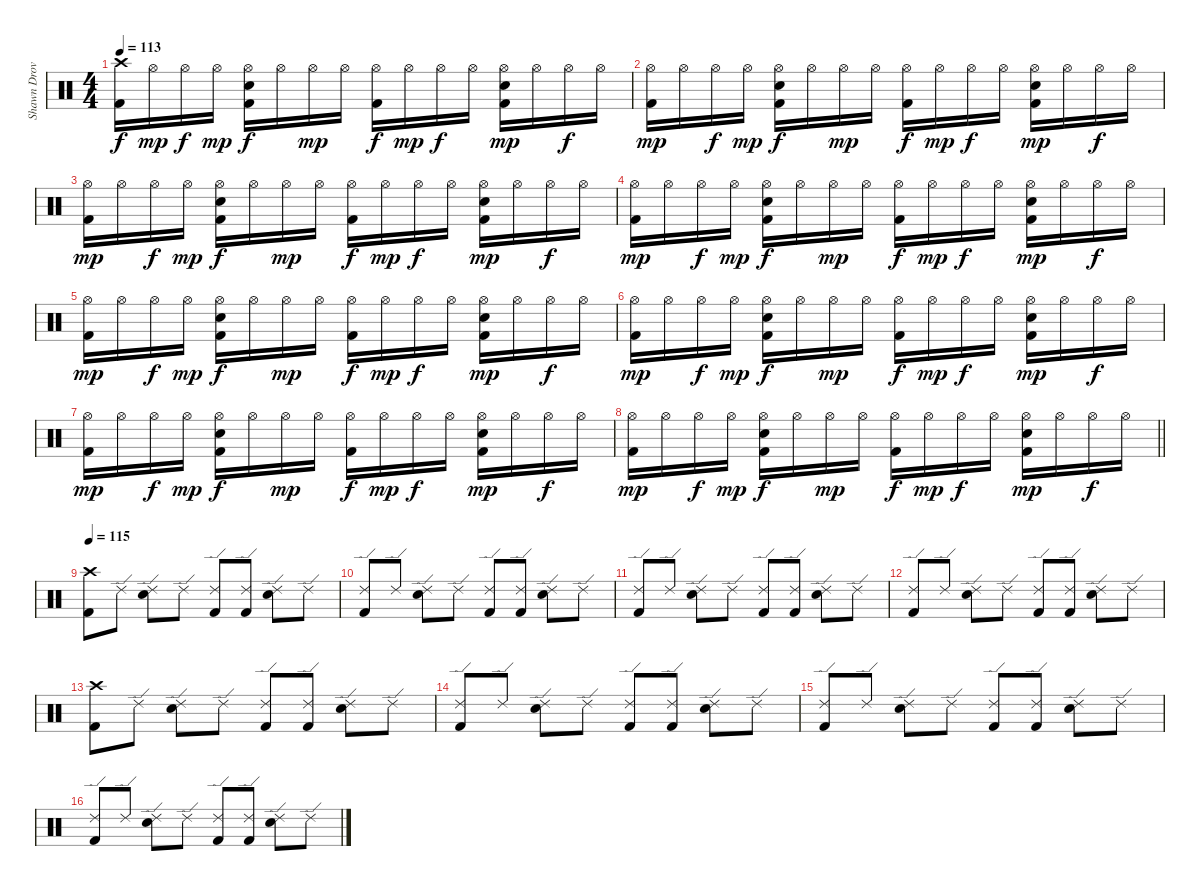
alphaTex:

\track ("Shawn Drover" "Shawn Drov") {instrument percussion}
\staff {score}
\articulation defaults
\ts (4 4)
\tempo 113
\clef neutral
\ks c
("Crash high (hit)" "Kick (hit) 2").16{dy f} "Hi-Hat (open)".16{dy mp} "Hi-Hat (open)".16{dy f} "Hi-Hat (open)".16{dy mp} ("Hi-Hat (open)" "Snare (hit) 2" "Kick (hit) 2").16{dy f} "Hi-Hat (open)".16 "Hi-Hat (open)".16{dy mp} "Hi-Hat (open)".16 ("Hi-Hat (open)" "Kick (hit) 2").16{dy f} "Hi-Hat (open)".16{dy mp} "Hi-Hat (open)".16{dy f} "Hi-Hat (open)".16 ("Hi-Hat (open)" "Snare (hit) 2" "Kick (hit) 2").16{dy mp} "Hi-Hat (open)".16 "Hi-Hat (open)".16{dy f} "Hi-Hat (open)".16 |
("Hi-Hat (open)" "Kick (hit) 2").16{dy mp} "Hi-Hat (open)".16 "Hi-Hat (open)".16{dy f} "Hi-Hat (open)".16{dy mp} ("Hi-Hat (open)" "Snare (hit) 2" "Kick (hit) 2").16{dy f} "Hi-Hat (open)".16 "Hi-Hat (open)".16{dy mp} "Hi-Hat (open)".16 ("Hi-Hat (open)" "Kick (hit) 2").16{dy f} "Hi-Hat (open)".16{dy mp} "Hi-Hat (open)".16{dy f} "Hi-Hat (open)".16 ("Hi-Hat (open)" "Snare (hit) 2" "Kick (hit) 2").16{dy mp} "Hi-Hat (open)".16 "Hi-Hat (open)".16{dy f} "Hi-Hat (open)".16 |
("Hi-Hat (open)" "Kick (hit) 2").16{dy mp} "Hi-Hat (open)".16 "Hi-Hat (open)".16{dy f} "Hi-Hat (open)".16{dy mp} ("Hi-Hat (open)" "Snare (hit) 2" "Kick (hit) 2").16{dy f} "Hi-Hat (open)".16 "Hi-Hat (open)".16{dy mp} "Hi-Hat (open)".16 ("Hi-Hat (open)" "Kick (hit) 2").16{dy f} "Hi-Hat (open)".16{dy mp} "Hi-Hat (open)".16{dy f} "Hi-Hat (open)".16 ("Hi-Hat (open)" "Snare (hit) 2" "Kick (hit) 2").16{dy mp} "Hi-Hat (open)".16 "Hi-Hat (open)".16{dy f} "Hi-Hat (open)".16 |
("Hi-Hat (open)" "Kick (hit) 2").16{dy mp} "Hi-Hat (open)".16 "Hi-Hat (open)".16{dy f} "Hi-Hat (open)".16{dy mp} ("Hi-Hat (open)" "Snare (hit) 2" "Kick (hit) 2").16{dy f} "Hi-Hat (open)".16 "Hi-Hat (open)".16{dy mp} "Hi-Hat (open)".16 ("Hi-Hat (open)" "Kick (hit) 2").16{dy f} "Hi-Hat (open)".16{dy mp} "Hi-Hat (open)".16{dy f} "Hi-Hat (open)".16 ("Hi-Hat (open)" "Snare (hit) 2" "Kick (hit) 2").16{dy mp} "Hi-Hat (open)".16 "Hi-Hat (open)".16{dy f} "Hi-Hat (open)".16 |
("Hi-Hat (open)" "Kick (hit) 2").16{dy mp} "Hi-Hat (open)".16 "Hi-Hat (open)".16{dy f} "Hi-Hat (open)".16{dy mp} ("Hi-Hat (open)" "Snare (hit) 2" "Kick (hit) 2").16{dy f} "Hi-Hat (open)".16 "Hi-Hat (open)".16{dy mp} "Hi-Hat (open)".16 ("Hi-Hat (open)" "Kick (hit) 2").16{dy f} "Hi-Hat (open)".16{dy mp} "Hi-Hat (open)".16{dy f} "Hi-Hat (open)".16 ("Hi-Hat (open)" "Snare (hit) 2" "Kick (hit) 2").16{dy mp} "Hi-Hat (open)".16 "Hi-Hat (open)".16{dy f} "Hi-Hat (open)".16 |
("Hi-Hat (open)" "Kick (hit) 2").16{dy mp} "Hi-Hat (open)".16 "Hi-Hat (open)".16{dy f} "Hi-Hat (open)".16{dy mp} ("Hi-Hat (open)" "Snare (hit) 2" "Kick (hit) 2").16{dy f} "Hi-Hat (open)".16 "Hi-Hat (open)".16{dy mp} "Hi-Hat (open)".16 ("Hi-Hat (open)" "Kick (hit) 2").16{dy f} "Hi-Hat (open)".16{dy mp} "Hi-Hat (open)".16{dy f} "Hi-Hat (open)".16 ("Hi-Hat (open)" "Snare (hit) 2" "Kick (hit) 2").16{dy mp} "Hi-Hat (open)".16 "Hi-Hat (open)".16{dy f} "Hi-Hat (open)".16 |
("Hi-Hat (open)" "Kick (hit) 2").16{dy mp} "Hi-Hat (open)".16 "Hi-Hat (open)".16{dy f} "Hi-Hat (open)".16{dy mp} ("Hi-Hat (open)" "Snare (hit) 2" "Kick (hit) 2").16{dy f} "Hi-Hat (open)".16 "Hi-Hat (open)".16{dy mp} "Hi-Hat (open)".16 ("Hi-Hat (open)" "Kick (hit) 2").16{dy f} "Hi-Hat (open)".16{dy mp} "Hi-Hat (open)".16{dy f} "Hi-Hat (open)".16 ("Hi-Hat (open)" "Snare (hit) 2" "Kick (hit) 2").16{dy mp} "Hi-Hat (open)".16 "Hi-Hat (open)".16{dy f} "Hi-Hat (open)".16 |
\barLineRight lightlight
("Hi-Hat (open)" "Kick (hit) 2").16{dy mp} "Hi-Hat (open)".16 "Hi-Hat (open)".16{dy f} "Hi-Hat (open)".16{dy mp} ("Hi-Hat (open)" "Snare (hit) 2" "Kick (hit) 2").16{dy f} "Hi-Hat (open)".16 "Hi-Hat (open)".16{dy mp} "Hi-Hat (open)".16 ("Hi-Hat (open)" "Kick (hit) 2").16{dy f} "Hi-Hat (open)".16{dy mp} "Hi-Hat (open)".16{dy f} "Hi-Hat (open)".16 ("Hi-Hat (open)" "Snare (hit) 2" "Kick (hit) 2").16{dy mp} "Hi-Hat (open)".16 "Hi-Hat (open)".16{dy f} "Hi-Hat (open)".16 |
\tempo 115
("Crash high (hit)" "Kick (hit) 2").8 "Ride (edge) 2".8 ("Ride (edge) 2" "Snare (hit) 2").8 "Ride (edge) 2".8 ("Ride (edge) 2" "Kick (hit) 2").8 ("Ride (edge) 2" "Kick (hit) 2").8 ("Ride (edge) 2" "Snare (hit) 2").8 "Ride (edge) 2".8 |
("Ride (edge) 2" "Kick (hit) 2").8 "Ride (edge) 2".8 ("Ride (edge) 2" "Snare (hit) 2").8 "Ride (edge) 2".8 ("Ride (edge) 2" "Kick (hit) 2").8 ("Ride (edge) 2" "Kick (hit) 2").8 ("Ride (edge) 2" "Snare (hit) 2").8 "Ride (edge) 2".8 |
("Ride (edge) 2" "Kick (hit) 2").8 "Ride (edge) 2".8 ("Ride (edge) 2" "Snare (hit) 2").8 "Ride (edge) 2".8 ("Ride (edge) 2" "Kick (hit) 2").8 ("Ride (edge) 2" "Kick (hit) 2").8 ("Ride (edge) 2" "Snare (hit) 2").8 "Ride (edge) 2".8 |
("Ride (edge) 2" "Kick (hit) 2").8 "Ride (edge) 2".8 ("Ride (edge) 2" "Snare (hit) 2").8 "Ride (edge) 2".8 ("Ride (edge) 2" "Kick (hit) 2").8 ("Ride (edge) 2" "Kick (hit) 2").8 ("Ride (edge) 2" "Snare (hit) 2").8 "Ride (edge) 2".8 |
("Crash high (hit)" "Kick (hit) 2").8 "Ride (edge) 2".8 ("Ride (edge) 2" "Snare (hit) 2").8 "Ride (edge) 2".8 ("Ride (edge) 2" "Kick (hit) 2").8 ("Ride (edge) 2" "Kick (hit) 2").8 ("Ride (edge) 2" "Snare (hit) 2").8 "Ride (edge) 2".8 |
("Ride (edge) 2" "Kick (hit) 2").8 "Ride (edge) 2".8 ("Ride (edge) 2" "Snare (hit) 2").8 "Ride (edge) 2".8 ("Ride (edge) 2" "Kick (hit) 2").8 ("Ride (edge) 2" "Kick (hit) 2").8 ("Ride (edge) 2" "Snare (hit) 2").8 "Ride (edge) 2".8 |
("Ride (edge) 2" "Kick (hit) 2").8 "Ride (edge) 2".8 ("Ride (edge) 2" "Snare (hit) 2").8 "Ride (edge) 2".8 ("Ride (edge) 2" "Kick (hit) 2").8 ("Ride (edge) 2" "Kick (hit) 2").8 ("Ride (edge) 2" "Snare (hit) 2").8 "Ride (edge) 2".8 |
("Ride (edge) 2" "Kick (hit) 2").8 "Ride (edge) 2".8 ("Ride (edge) 2" "Snare (hit) 2").8 "Ride (edge) 2".8 ("Ride (edge) 2" "Kick (hit) 2").8 ("Ride (edge) 2" "Kick (hit) 2").8 ("Ride (edge) 2" "Snare (hit) 2").8 "Ride (edge) 2".8
